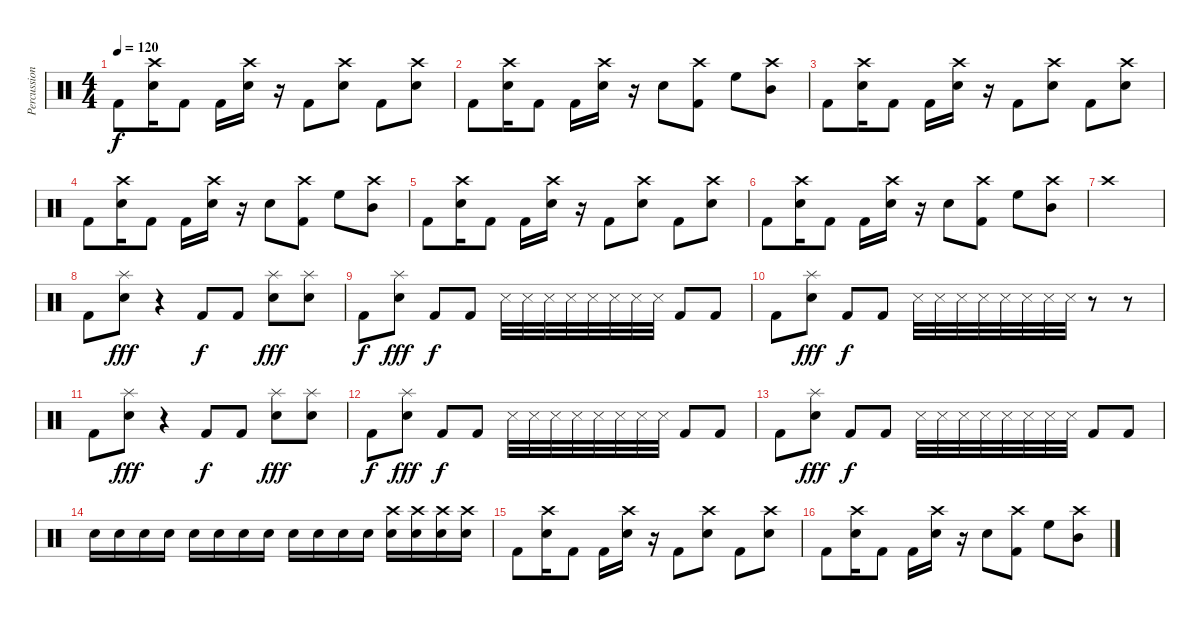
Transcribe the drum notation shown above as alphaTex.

\track ("Percussion" "Percussion") {instrument percussion}
\staff {score}
\articulation defaults
\ts (4 4)
\tempo 120
\clef neutral
\ks c "Kick (hit) 2".8{dy f}
("Crash high (hit)" "Electric Snare (hit)").16 "Kick (hit) 2".8 "Kick (hit) 2".16 ("Crash high (hit)" "Electric Snare (hit)").16 r.16 "Kick (hit) 2".8 ("Crash high (hit)" "Electric Snare (hit)").8 "Kick (hit) 2".8 ("Crash high (hit)" "Electric Snare (hit)").8 |
"Kick (hit) 2".8 ("Crash high (hit)" "Electric Snare (hit)").16 "Kick (hit) 2".8 "Kick (hit) 2".16 ("Crash high (hit)" "Electric Snare (hit)").16 r.16 "Electric Snare (hit)".8 ("Crash high (hit)" "Kick (hit) 2").8 "High Floor Tom (hit)".8 ("Crash high (hit)" "Mid Tom (hit)").8 |
"Kick (hit) 2".8 ("Crash high (hit)" "Electric Snare (hit)").16 "Kick (hit) 2".8 "Kick (hit) 2".16 ("Crash high (hit)" "Electric Snare (hit)").16 r.16 "Kick (hit) 2".8 ("Crash high (hit)" "Electric Snare (hit)").8 "Kick (hit) 2".8 ("Crash high (hit)" "Electric Snare (hit)").8 |
"Kick (hit) 2".8 ("Crash high (hit)" "Electric Snare (hit)").16 "Kick (hit) 2".8 "Kick (hit) 2".16 ("Crash high (hit)" "Electric Snare (hit)").16 r.16 "Electric Snare (hit)".8 ("Crash high (hit)" "Kick (hit) 2").8 "High Floor Tom (hit)".8 ("Crash high (hit)" "Mid Tom (hit)").8 |
"Kick (hit) 2".8 ("Crash high (hit)" "Electric Snare (hit)").16 "Kick (hit) 2".8 "Kick (hit) 2".16 ("Crash high (hit)" "Electric Snare (hit)").16 r.16 "Kick (hit) 2".8 ("Crash high (hit)" "Electric Snare (hit)").8 "Kick (hit) 2".8 ("Crash high (hit)" "Electric Snare (hit)").8 |
"Kick (hit) 2".8 ("Crash high (hit)" "Electric Snare (hit)").16 "Kick (hit) 2".8 "Kick (hit) 2".16 ("Crash high (hit)" "Electric Snare (hit)").16 r.16 "Electric Snare (hit)".8 ("Crash high (hit)" "Kick (hit) 2").8 "High Floor Tom (hit)".8 ("Crash high (hit)" "Mid Tom (hit)").8 |
"Crash high (hit)".1 |
"Kick (hit) 2".8 ("Splash (hit)" "Electric Snare (hit)").8{dy fff} r.4 "Kick (hit) 2".8{dy f} "Kick (hit) 2".8 ("Splash (hit)" "Electric Snare (hit)").8{dy fff} ("Splash (hit)" "Electric Snare (hit)").8 |
"Kick (hit) 2".8{dy f} ("Splash (hit)" "Electric Snare (hit)").8{dy fff} "Kick (hit) 2".8{dy f} "Kick (hit) 2".8 "Snare (side stick) 3".32 "Snare (side stick) 3".32 "Snare (side stick) 3".32 "Snare (side stick) 3".32 "Snare (side stick) 3".32 "Snare (side stick) 3".32 "Snare (side stick) 3".32 "Snare (side stick) 3".32 "Kick (hit) 2".8 "Kick (hit) 2".8 |
"Kick (hit) 2".8 ("Splash (hit)" "Electric Snare (hit)").8{dy fff} "Kick (hit) 2".8{dy f} "Kick (hit) 2".8 "Snare (side stick) 3".32 "Snare (side stick) 3".32 "Snare (side stick) 3".32 "Snare (side stick) 3".32 "Snare (side stick) 3".32 "Snare (side stick) 3".32 "Snare (side stick) 3".32 "Snare (side stick) 3".32 r.8 r.8 |
"Kick (hit) 2".8 ("Splash (hit)" "Electric Snare (hit)").8{dy fff} r.4 "Kick (hit) 2".8{dy f} "Kick (hit) 2".8 ("Splash (hit)" "Electric Snare (hit)").8{dy fff} ("Splash (hit)" "Electric Snare (hit)").8 |
"Kick (hit) 2".8{dy f} ("Splash (hit)" "Electric Snare (hit)").8{dy fff} "Kick (hit) 2".8{dy f} "Kick (hit) 2".8 "Snare (side stick) 3".32 "Snare (side stick) 3".32 "Snare (side stick) 3".32 "Snare (side stick) 3".32 "Snare (side stick) 3".32 "Snare (side stick) 3".32 "Snare (side stick) 3".32 "Snare (side stick) 3".32 "Kick (hit) 2".8 "Kick (hit) 2".8 |
"Kick (hit) 2".8 ("Splash (hit)" "Electric Snare (hit)").8{dy fff} "Kick (hit) 2".8{dy f} "Kick (hit) 2".8 "Snare (side stick) 3".32 "Snare (side stick) 3".32 "Snare (side stick) 3".32 "Snare (side stick) 3".32 "Snare (side stick) 3".32 "Snare (side stick) 3".32 "Snare (side stick) 3".32 "Snare (side stick) 3".32 "Kick (hit) 2".8 "Kick (hit) 2".8 |
"Electric Snare (hit)".16 "Electric Snare (hit)".16 "Electric Snare (hit)".16 "Electric Snare (hit)".16 "Electric Snare (hit)".16 "Electric Snare (hit)".16 "Electric Snare (hit)".16 "Electric Snare (hit)".16 "Electric Snare (hit)".16 "Electric Snare (hit)".16 "Electric Snare (hit)".16 "Electric Snare (hit)".16 ("Crash high (hit)" "Electric Snare (hit)").16 ("Crash high (hit)" "Electric Snare (hit)").16 ("Crash high (hit)" "Electric Snare (hit)").16 ("Crash high (hit)" "Electric Snare (hit)").16 |
"Kick (hit) 2".8 ("Crash high (hit)" "Electric Snare (hit)").16 "Kick (hit) 2".8 "Kick (hit) 2".16 ("Crash high (hit)" "Electric Snare (hit)").16 r.16 "Kick (hit) 2".8 ("Crash high (hit)" "Electric Snare (hit)").8 "Kick (hit) 2".8 ("Crash high (hit)" "Electric Snare (hit)").8 |
"Kick (hit) 2".8 ("Crash high (hit)" "Electric Snare (hit)").16 "Kick (hit) 2".8 "Kick (hit) 2".16 ("Crash high (hit)" "Electric Snare (hit)").16 r.16 "Electric Snare (hit)".8 ("Crash high (hit)" "Kick (hit) 2").8 "High Floor Tom (hit)".8 ("Crash high (hit)" "Mid Tom (hit)").8
